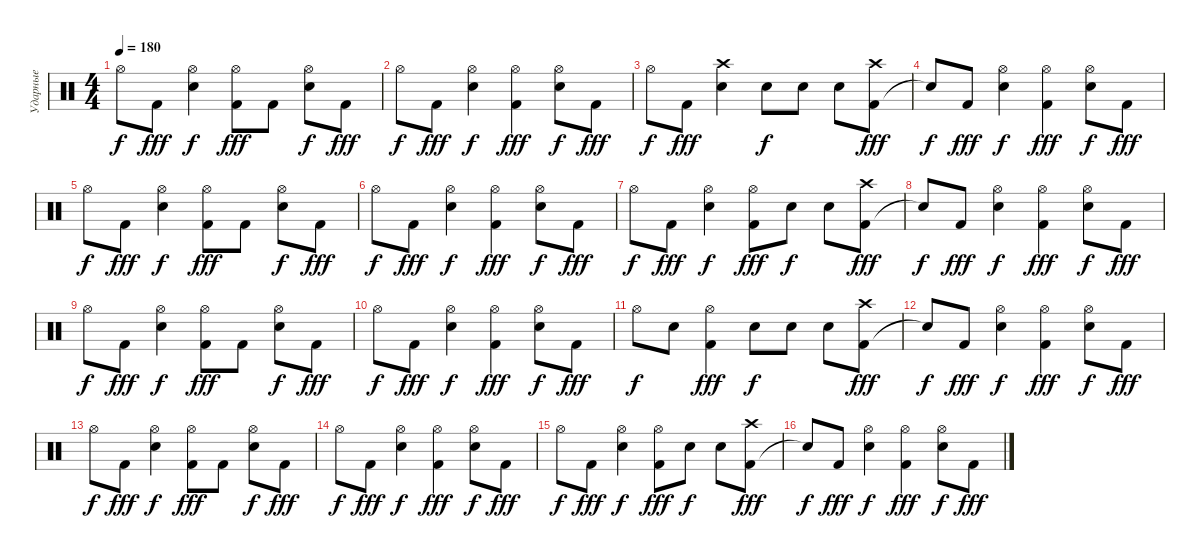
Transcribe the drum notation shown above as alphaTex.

\track ("Ударные" "Ударные") {instrument percussion}
\staff {score}
\articulation defaults
\ts (4 4)
\tempo 180
\clef neutral
\ks c "Hi-Hat (open)".8{dy f} "Kick (hit) 2".8{dy fff}
("Snare (hit) 2" "Hi-Hat (open)").4{dy f} ("Kick (hit) 2" "Hi-Hat (open)").8{dy fff} "Kick (hit) 2".8 ("Snare (hit) 2" "Hi-Hat (open)").8{dy f} "Kick (hit) 2".8{dy fff} |
"Hi-Hat (open)".8{dy f} "Kick (hit) 2".8{dy fff} ("Snare (hit) 2" "Hi-Hat (open)").4{dy f} ("Kick (hit) 2" "Hi-Hat (open)").4{dy fff} ("Snare (hit) 2" "Hi-Hat (open)").8{dy f} "Kick (hit) 2".8{dy fff} |
"Hi-Hat (open)".8{dy f} "Kick (hit) 2".8{dy fff} ("Snare (hit) 2" "Crash high (hit)").4 "Snare (hit) 2".8{dy f} "Snare (hit) 2".8 "Snare (hit) 2".8 ("Kick (hit) 2" "Crash high (hit)").8{dy fff} |
"Snare (hit)"{t}.8{dy f} "Kick (hit) 2".8{dy fff} ("Snare (hit) 2" "Hi-Hat (open)").4{dy f} ("Kick (hit) 2" "Hi-Hat (open)").4{dy fff} ("Snare (hit) 2" "Hi-Hat (open)").8{dy f} "Kick (hit) 2".8{dy fff} |
"Hi-Hat (open)".8{dy f} "Kick (hit) 2".8{dy fff} ("Snare (hit) 2" "Hi-Hat (open)").4{dy f} ("Kick (hit) 2" "Hi-Hat (open)").8{dy fff} "Kick (hit) 2".8 ("Snare (hit) 2" "Hi-Hat (open)").8{dy f} "Kick (hit) 2".8{dy fff} |
"Hi-Hat (open)".8{dy f} "Kick (hit) 2".8{dy fff} ("Snare (hit) 2" "Hi-Hat (open)").4{dy f} ("Kick (hit) 2" "Hi-Hat (open)").4{dy fff} ("Snare (hit) 2" "Hi-Hat (open)").8{dy f} "Kick (hit) 2".8{dy fff} |
"Hi-Hat (open)".8{dy f} "Kick (hit) 2".8{dy fff} ("Snare (hit) 2" "Hi-Hat (open)").4{dy f} ("Kick (hit) 2" "Hi-Hat (open)").8{dy fff} "Snare (hit) 2".8{dy f} "Snare (hit) 2".8 ("Kick (hit) 2" "Crash high (hit)").8{dy fff} |
"Snare (hit)"{t}.8{dy f} "Kick (hit) 2".8{dy fff} ("Snare (hit) 2" "Hi-Hat (open)").4{dy f} ("Kick (hit) 2" "Hi-Hat (open)").4{dy fff} ("Snare (hit) 2" "Hi-Hat (open)").8{dy f} "Kick (hit) 2".8{dy fff} |
"Hi-Hat (open)".8{dy f} "Kick (hit) 2".8{dy fff} ("Snare (hit) 2" "Hi-Hat (open)").4{dy f} ("Kick (hit) 2" "Hi-Hat (open)").8{dy fff} "Kick (hit) 2".8 ("Snare (hit) 2" "Hi-Hat (open)").8{dy f} "Kick (hit) 2".8{dy fff} |
"Hi-Hat (open)".8{dy f} "Kick (hit) 2".8{dy fff} ("Snare (hit) 2" "Hi-Hat (open)").4{dy f} ("Kick (hit) 2" "Hi-Hat (open)").4{dy fff} ("Snare (hit) 2" "Hi-Hat (open)").8{dy f} "Kick (hit) 2".8{dy fff} |
"Hi-Hat (open)".8{dy f} "Snare (hit) 2".8 ("Kick (hit) 2" "Hi-Hat (open)").4{dy fff} "Snare (hit) 2".8{dy f} "Snare (hit) 2".8 "Snare (hit) 2".8 ("Kick (hit) 2" "Crash high (hit)").8{dy fff} |
"Snare (hit)"{t}.8{dy f} "Kick (hit) 2".8{dy fff} ("Snare (hit) 2" "Hi-Hat (open)").4{dy f} ("Kick (hit) 2" "Hi-Hat (open)").4{dy fff} ("Snare (hit) 2" "Hi-Hat (open)").8{dy f} "Kick (hit) 2".8{dy fff} |
"Hi-Hat (open)".8{dy f} "Kick (hit) 2".8{dy fff} ("Snare (hit) 2" "Hi-Hat (open)").4{dy f} ("Kick (hit) 2" "Hi-Hat (open)").8{dy fff} "Kick (hit) 2".8 ("Snare (hit) 2" "Hi-Hat (open)").8{dy f} "Kick (hit) 2".8{dy fff} |
"Hi-Hat (open)".8{dy f} "Kick (hit) 2".8{dy fff} ("Snare (hit) 2" "Hi-Hat (open)").4{dy f} ("Kick (hit) 2" "Hi-Hat (open)").4{dy fff} ("Snare (hit) 2" "Hi-Hat (open)").8{dy f} "Kick (hit) 2".8{dy fff} |
"Hi-Hat (open)".8{dy f} "Kick (hit) 2".8{dy fff} ("Snare (hit) 2" "Hi-Hat (open)").4{dy f} ("Kick (hit) 2" "Hi-Hat (open)").8{dy fff} "Snare (hit) 2".8{dy f} "Snare (hit) 2".8 ("Kick (hit) 2" "Crash high (hit)").8{dy fff} |
"Snare (hit)"{t}.8{dy f} "Kick (hit) 2".8{dy fff} ("Snare (hit) 2" "Hi-Hat (open)").4{dy f} ("Kick (hit) 2" "Hi-Hat (open)").4{dy fff} ("Snare (hit) 2" "Hi-Hat (open)").8{dy f} "Kick (hit) 2".8{dy fff}
